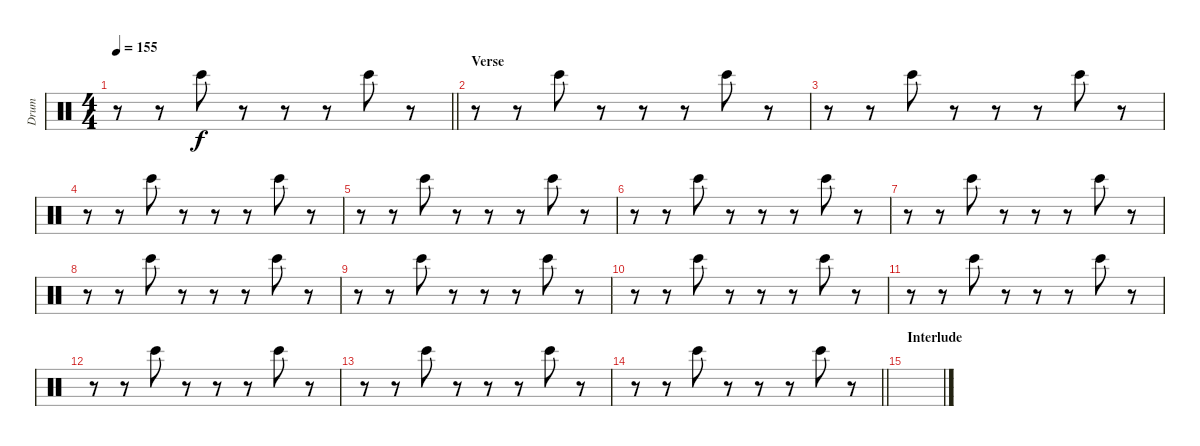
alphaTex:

\track ("Drum" "Drum") {instrument percussion}
\staff {score}
\articulation defaults
\ts (4 4)
\tempo 155
\clef neutral
\barLineRight lightlight
\ks c
r.8{dy f} r.8 "Bongo High (hit)".8 r.8 r.8 r.8 "Bongo High (hit)".8 r.8 |
\section ("" "Verse")
r.8 r.8 "Bongo High (hit)".8 r.8 r.8 r.8 "Bongo High (hit)".8 r.8 |
r.8 r.8 "Bongo High (hit)".8 r.8 r.8 r.8 "Bongo High (hit)".8 r.8 |
r.8 r.8 "Bongo High (hit)".8 r.8 r.8 r.8 "Bongo High (hit)".8 r.8 |
r.8 r.8 "Bongo High (hit)".8 r.8 r.8 r.8 "Bongo High (hit)".8 r.8 |
r.8 r.8 "Bongo High (hit)".8 r.8 r.8 r.8 "Bongo High (hit)".8 r.8 |
r.8 r.8 "Bongo High (hit)".8 r.8 r.8 r.8 "Bongo High (hit)".8 r.8 |
r.8 r.8 "Bongo High (hit)".8 r.8 r.8 r.8 "Bongo High (hit)".8 r.8 |
r.8 r.8 "Bongo High (hit)".8 r.8 r.8 r.8 "Bongo High (hit)".8 r.8 |
r.8 r.8 "Bongo High (hit)".8 r.8 r.8 r.8 "Bongo High (hit)".8 r.8 |
r.8 r.8 "Bongo High (hit)".8 r.8 r.8 r.8 "Bongo High (hit)".8 r.8 |
r.8 r.8 "Bongo High (hit)".8 r.8 r.8 r.8 "Bongo High (hit)".8 r.8 |
r.8 r.8 "Bongo High (hit)".8 r.8 r.8 r.8 "Bongo High (hit)".8 r.8 |
\barLineRight lightlight
r.8 r.8 "Bongo High (hit)".8 r.8 r.8 r.8 "Bongo High (hit)".8 r.8 |
\section ("" "Interlude")
